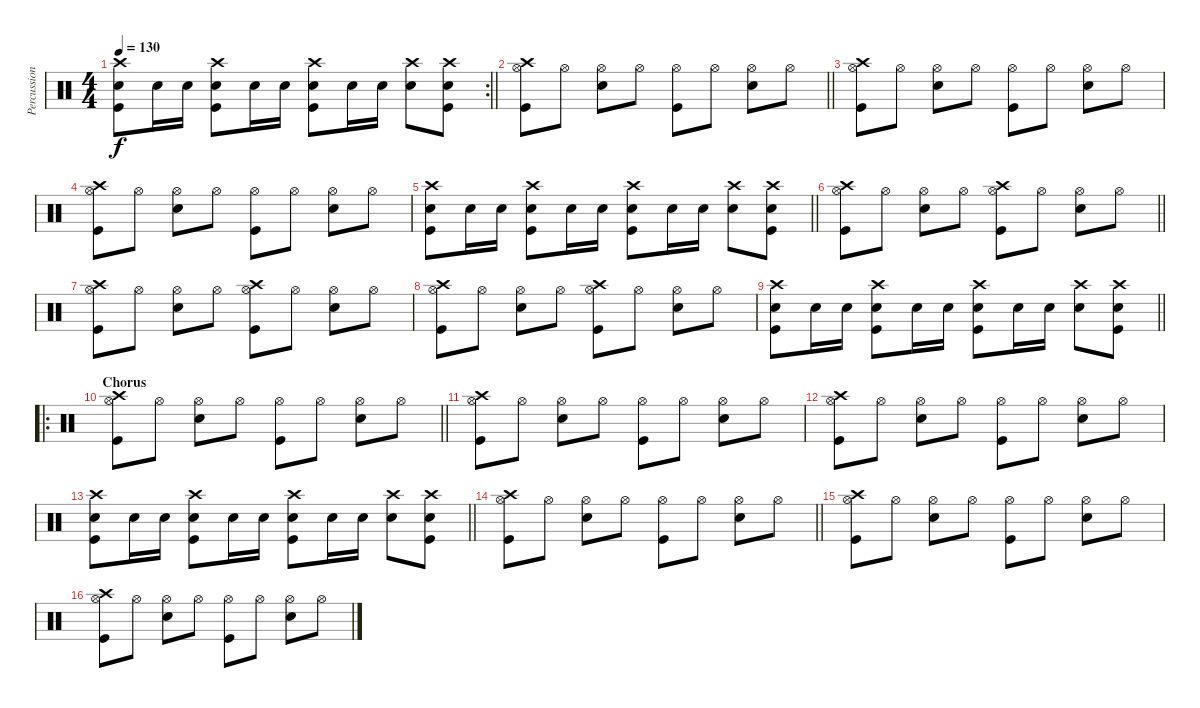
\track ("Percussion" "Percussion") {instrument percussion}
\staff {score}
\articulation defaults
\rc 2
\ts (4 4)
\tempo 130
\clef neutral
\barLineRight lightlight
\ks c
("Crash high (hit)" "Snare (hit) 2" "Kick (hit)").8{dy f} "Snare (hit) 2".16 "Snare (hit) 2".16 ("Crash high (hit)" "Snare (hit) 2" "Kick (hit)").8 "Snare (hit) 2".16 "Snare (hit) 2".16 ("Crash high (hit)" "Snare (hit) 2" "Kick (hit)").8 "Snare (hit) 2".16 "Snare (hit) 2".16 ("Crash high (hit)" "Snare (hit) 2").8 ("Crash high (hit)" "Snare (hit) 2" "Kick (hit)").8 |
\barLineRight lightlight
("Crash high (hit)" "Hi-Hat (open)" "Kick (hit)").8 "Hi-Hat (open)".8 ("Hi-Hat (open)" "Snare (hit) 2").8 "Hi-Hat (open)".8 ("Hi-Hat (open)" "Kick (hit)").8 "Hi-Hat (open)".8 ("Hi-Hat (open)" "Snare (hit) 2").8 "Hi-Hat (open)".8 |
("Crash high (hit)" "Hi-Hat (open)" "Kick (hit)").8 "Hi-Hat (open)".8 ("Hi-Hat (open)" "Snare (hit) 2").8 "Hi-Hat (open)".8 ("Hi-Hat (open)" "Kick (hit)").8 "Hi-Hat (open)".8 ("Hi-Hat (open)" "Snare (hit) 2").8 "Hi-Hat (open)".8 |
("Crash high (hit)" "Hi-Hat (open)" "Kick (hit)").8 "Hi-Hat (open)".8 ("Hi-Hat (open)" "Snare (hit) 2").8 "Hi-Hat (open)".8 ("Hi-Hat (open)" "Kick (hit)").8 "Hi-Hat (open)".8 ("Hi-Hat (open)" "Snare (hit) 2").8 "Hi-Hat (open)".8 |
\barLineRight lightlight
("Crash high (hit)" "Snare (hit) 2" "Kick (hit)").8 "Snare (hit) 2".16 "Snare (hit) 2".16 ("Crash high (hit)" "Snare (hit) 2" "Kick (hit)").8 "Snare (hit) 2".16 "Snare (hit) 2".16 ("Crash high (hit)" "Snare (hit) 2" "Kick (hit)").8 "Snare (hit) 2".16 "Snare (hit) 2".16 ("Crash high (hit)" "Snare (hit) 2").8 ("Crash high (hit)" "Snare (hit) 2" "Kick (hit)").8 |
\barLineRight lightlight
("Crash high (hit)" "Hi-Hat (open)" "Kick (hit)").8 "Hi-Hat (open)".8 ("Hi-Hat (open)" "Snare (hit) 2").8 "Hi-Hat (open)".8 ("Crash high (hit)" "Hi-Hat (open)" "Kick (hit)").8 "Hi-Hat (open)".8 ("Hi-Hat (open)" "Snare (hit) 2").8 "Hi-Hat (open)".8 |
("Crash high (hit)" "Hi-Hat (open)" "Kick (hit)").8 "Hi-Hat (open)".8 ("Hi-Hat (open)" "Snare (hit) 2").8 "Hi-Hat (open)".8 ("Crash high (hit)" "Hi-Hat (open)" "Kick (hit)").8 "Hi-Hat (open)".8 ("Hi-Hat (open)" "Snare (hit) 2").8 "Hi-Hat (open)".8 |
("Crash high (hit)" "Hi-Hat (open)" "Kick (hit)").8 "Hi-Hat (open)".8 ("Hi-Hat (open)" "Snare (hit) 2").8 "Hi-Hat (open)".8 ("Crash high (hit)" "Hi-Hat (open)" "Kick (hit)").8 "Hi-Hat (open)".8 ("Hi-Hat (open)" "Snare (hit) 2").8 "Hi-Hat (open)".8 |
\barLineRight lightlight
("Crash high (hit)" "Snare (hit) 2" "Kick (hit)").8 "Snare (hit) 2".16 "Snare (hit) 2".16 ("Crash high (hit)" "Snare (hit) 2" "Kick (hit)").8 "Snare (hit) 2".16 "Snare (hit) 2".16 ("Crash high (hit)" "Snare (hit) 2" "Kick (hit)").8 "Snare (hit) 2".16 "Snare (hit) 2".16 ("Crash high (hit)" "Snare (hit) 2").8 ("Crash high (hit)" "Snare (hit) 2" "Kick (hit)").8 |
\ro
\section ("" "Chorus")
\barLineRight lightlight
("Crash high (hit)" "Hi-Hat (open)" "Kick (hit)").8 "Hi-Hat (open)".8 ("Hi-Hat (open)" "Snare (hit) 2").8 "Hi-Hat (open)".8 ("Hi-Hat (open)" "Kick (hit)").8 "Hi-Hat (open)".8 ("Hi-Hat (open)" "Snare (hit) 2").8 "Hi-Hat (open)".8 |
("Crash high (hit)" "Hi-Hat (open)" "Kick (hit)").8 "Hi-Hat (open)".8 ("Hi-Hat (open)" "Snare (hit) 2").8 "Hi-Hat (open)".8 ("Hi-Hat (open)" "Kick (hit)").8 "Hi-Hat (open)".8 ("Hi-Hat (open)" "Snare (hit) 2").8 "Hi-Hat (open)".8 |
("Crash high (hit)" "Hi-Hat (open)" "Kick (hit)").8 "Hi-Hat (open)".8 ("Hi-Hat (open)" "Snare (hit) 2").8 "Hi-Hat (open)".8 ("Hi-Hat (open)" "Kick (hit)").8 "Hi-Hat (open)".8 ("Hi-Hat (open)" "Snare (hit) 2").8 "Hi-Hat (open)".8 |
\barLineRight lightlight
("Crash high (hit)" "Snare (hit) 2" "Kick (hit)").8 "Snare (hit) 2".16 "Snare (hit) 2".16 ("Crash high (hit)" "Snare (hit) 2" "Kick (hit)").8 "Snare (hit) 2".16 "Snare (hit) 2".16 ("Crash high (hit)" "Snare (hit) 2" "Kick (hit)").8 "Snare (hit) 2".16 "Snare (hit) 2".16 ("Crash high (hit)" "Snare (hit) 2").8 ("Crash high (hit)" "Snare (hit) 2" "Kick (hit)").8 |
\barLineRight lightlight
("Crash high (hit)" "Hi-Hat (open)" "Kick (hit)").8 "Hi-Hat (open)".8 ("Hi-Hat (open)" "Snare (hit) 2").8 "Hi-Hat (open)".8 ("Hi-Hat (open)" "Kick (hit)").8 "Hi-Hat (open)".8 ("Hi-Hat (open)" "Snare (hit) 2").8 "Hi-Hat (open)".8 |
("Crash high (hit)" "Hi-Hat (open)" "Kick (hit)").8 "Hi-Hat (open)".8 ("Hi-Hat (open)" "Snare (hit) 2").8 "Hi-Hat (open)".8 ("Hi-Hat (open)" "Kick (hit)").8 "Hi-Hat (open)".8 ("Hi-Hat (open)" "Snare (hit) 2").8 "Hi-Hat (open)".8 |
("Crash high (hit)" "Hi-Hat (open)" "Kick (hit)").8 "Hi-Hat (open)".8 ("Hi-Hat (open)" "Snare (hit) 2").8 "Hi-Hat (open)".8 ("Hi-Hat (open)" "Kick (hit)").8 "Hi-Hat (open)".8 ("Hi-Hat (open)" "Snare (hit) 2").8 "Hi-Hat (open)".8
